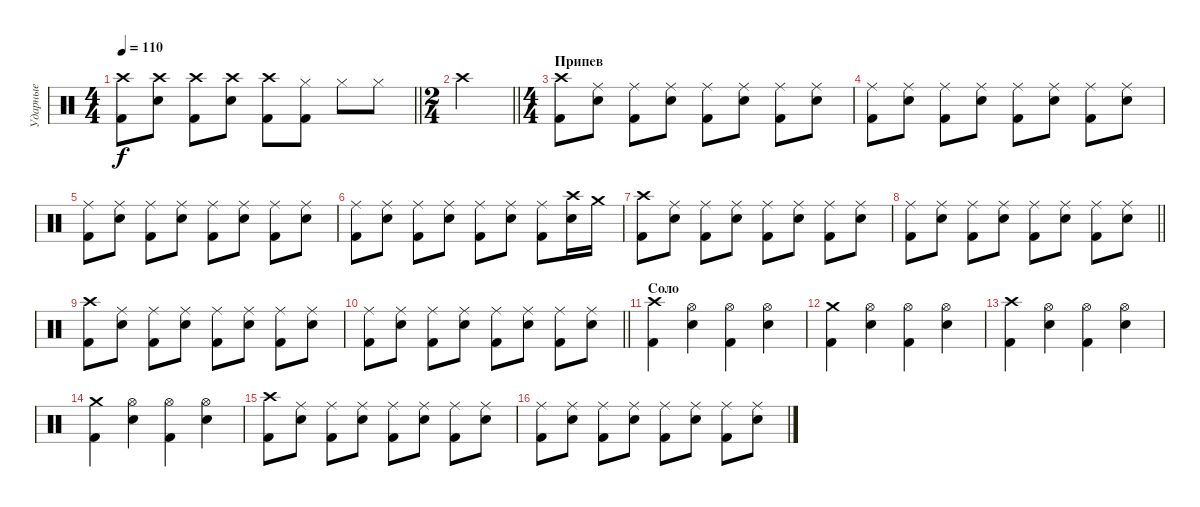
\track ("Ударные" "Ударные") {instrument percussion}
\staff {score}
\articulation defaults
\ts (4 4)
\section ("" "")
\tempo 110
\clef neutral
\barLineRight lightlight
\ks c
("Crash high (hit)" "Kick (hit) 2").8{dy f} ("Crash high (hit)" "Electric Snare (hit)").8 ("Crash high (hit)" "Kick (hit) 2").8 ("Crash high (hit)" "Electric Snare (hit)").8 ("Crash high (hit)" "Kick (hit) 2").8 ("Hi-Hat (closed)" "Kick (hit) 2").8 "Hi-Hat (closed)".8 "Hi-Hat (closed)".8 |
\ts (2 4)
\barLineRight lightlight "Crash high (hit)".2
|
\ts (4 4)
\section ("" "Припев")
("Crash high (hit)" "Kick (hit) 2").8 ("Ride (middle)" "Electric Snare (hit)").8 ("Ride (middle)" "Kick (hit) 2").8 ("Ride (middle)" "Electric Snare (hit)").8 ("Ride (middle)" "Kick (hit) 2").8 ("Ride (middle)" "Electric Snare (hit)").8 ("Ride (middle)" "Kick (hit) 2").8 ("Ride (middle)" "Electric Snare (hit)").8 |
("Ride (middle)" "Kick (hit) 2").8 ("Ride (middle)" "Electric Snare (hit)").8 ("Ride (middle)" "Kick (hit) 2").8 ("Ride (middle)" "Electric Snare (hit)").8 ("Ride (middle)" "Kick (hit) 2").8 ("Ride (middle)" "Electric Snare (hit)").8 ("Ride (middle)" "Kick (hit) 2").8 ("Ride (middle)" "Electric Snare (hit)").8 |
("Ride (middle)" "Kick (hit) 2").8 ("Ride (middle)" "Electric Snare (hit)").8 ("Ride (middle)" "Kick (hit) 2").8 ("Ride (middle)" "Electric Snare (hit)").8 ("Ride (middle)" "Kick (hit) 2").8 ("Ride (middle)" "Electric Snare (hit)").8 ("Ride (middle)" "Kick (hit) 2").8 ("Ride (middle)" "Electric Snare (hit)").8 |
("Ride (middle)" "Kick (hit) 2").8 ("Ride (middle)" "Electric Snare (hit)").8 ("Ride (middle)" "Kick (hit) 2").8 ("Ride (middle)" "Electric Snare (hit)").8 ("Ride (middle)" "Kick (hit) 2").8 ("Ride (middle)" "Electric Snare (hit)").8 ("Ride (middle)" "Kick (hit) 2").8 ("Crash high (hit)" "Electric Snare (hit)").16 "Crash medium (hit)".16 |
("Crash high (hit)" "Kick (hit) 2").8 ("Ride (middle)" "Electric Snare (hit)").8 ("Ride (middle)" "Kick (hit) 2").8 ("Ride (middle)" "Electric Snare (hit)").8 ("Ride (middle)" "Kick (hit) 2").8 ("Ride (middle)" "Electric Snare (hit)").8 ("Ride (middle)" "Kick (hit) 2").8 ("Ride (middle)" "Electric Snare (hit)").8 |
\barLineRight lightlight
("Ride (middle)" "Kick (hit) 2").8 ("Ride (middle)" "Electric Snare (hit)").8 ("Ride (middle)" "Kick (hit) 2").8 ("Ride (middle)" "Electric Snare (hit)").8 ("Ride (middle)" "Kick (hit) 2").8 ("Ride (middle)" "Electric Snare (hit)").8 ("Ride (middle)" "Kick (hit) 2").8 ("Ride (middle)" "Electric Snare (hit)").8 |
\section ("" "")
("Crash high (hit)" "Kick (hit) 2").8 ("Ride (middle)" "Electric Snare (hit)").8 ("Ride (middle)" "Kick (hit) 2").8 ("Ride (middle)" "Electric Snare (hit)").8 ("Ride (middle)" "Kick (hit) 2").8 ("Ride (middle)" "Electric Snare (hit)").8 ("Ride (middle)" "Kick (hit) 2").8 ("Ride (middle)" "Electric Snare (hit)").8 |
\barLineRight lightlight
("Ride (middle)" "Kick (hit) 2").8 ("Ride (middle)" "Electric Snare (hit)").8 ("Ride (middle)" "Kick (hit) 2").8 ("Ride (middle)" "Electric Snare (hit)").8 ("Ride (middle)" "Kick (hit) 2").8 ("Ride (middle)" "Electric Snare (hit)").8 ("Ride (middle)" "Kick (hit) 2").8 ("Ride (middle)" "Electric Snare (hit)").8 |
\section ("" "Соло")
("Crash high (hit)" "Kick (hit) 2").4 ("Hi-Hat (open)" "Electric Snare (hit)").4 ("Hi-Hat (open)" "Kick (hit) 2").4 ("Hi-Hat (open)" "Electric Snare (hit)").4 |
("Crash medium (hit)" "Kick (hit) 2").4 ("Hi-Hat (open)" "Electric Snare (hit)").4 ("Hi-Hat (open)" "Kick (hit) 2").4 ("Hi-Hat (open)" "Electric Snare (hit)").4 |
("Crash high (hit)" "Kick (hit) 2").4 ("Hi-Hat (open)" "Electric Snare (hit)").4 ("Hi-Hat (open)" "Kick (hit) 2").4 ("Hi-Hat (open)" "Electric Snare (hit)").4 |
("Crash medium (hit)" "Kick (hit) 2").4 ("Hi-Hat (open)" "Electric Snare (hit)").4 ("Hi-Hat (open)" "Kick (hit) 2").4 ("Hi-Hat (open)" "Electric Snare (hit)").4 |
("Crash high (hit)" "Kick (hit) 2").8 ("Ride (middle)" "Electric Snare (hit)").8 ("Ride (middle)" "Kick (hit) 2").8 ("Ride (middle)" "Electric Snare (hit)").8 ("Ride (middle)" "Kick (hit) 2").8 ("Ride (middle)" "Electric Snare (hit)").8 ("Ride (middle)" "Kick (hit) 2").8 ("Ride (middle)" "Electric Snare (hit)").8 |
("Ride (middle)" "Kick (hit) 2").8 ("Ride (middle)" "Electric Snare (hit)").8 ("Ride (middle)" "Kick (hit) 2").8 ("Ride (middle)" "Electric Snare (hit)").8 ("Ride (middle)" "Kick (hit) 2").8 ("Ride (middle)" "Electric Snare (hit)").8 ("Ride (middle)" "Kick (hit) 2").8 ("Ride (middle)" "Electric Snare (hit)").8
